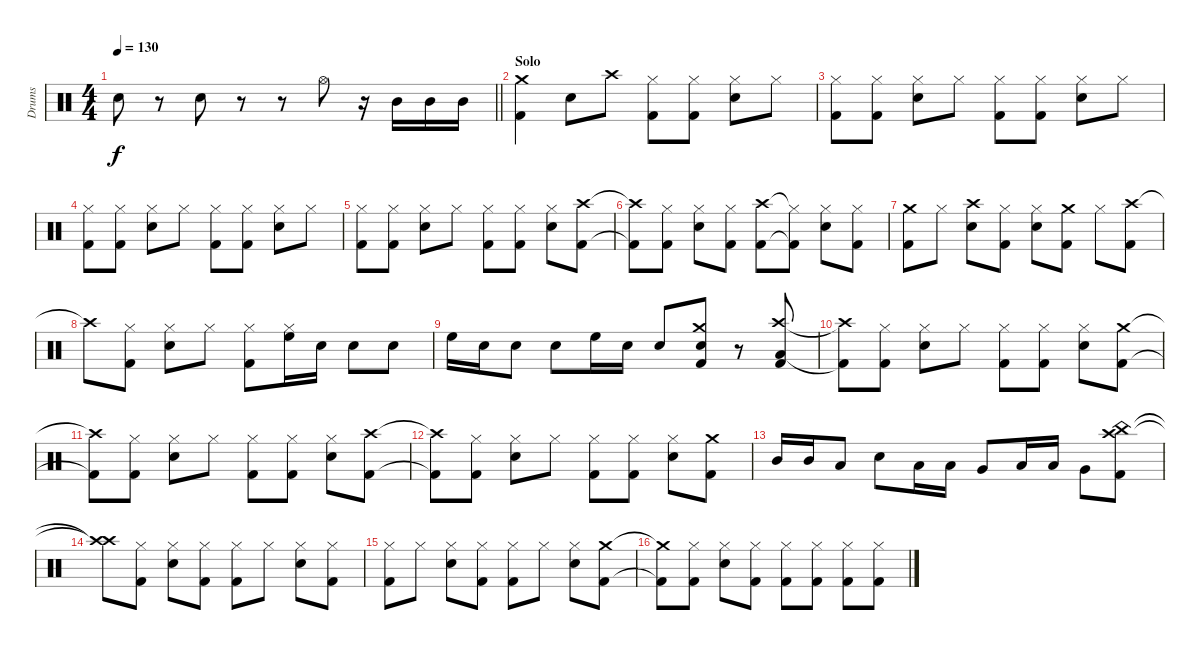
\track ("Drums" "Drums") {instrument percussion}
\staff {score}
\articulation defaults
\ts (4 4)
\tempo 130
\clef neutral
\barLineRight lightlight
\ks c "Electric Snare (hit)".8{dy f}
r.8 "Electric Snare (hit)".8 r.8 r.8 "Hi-Hat (open)".8 r.16 "Mid Tom (hit)".16 "Mid Tom (hit)".16 "Mid Tom (hit)".16 |
\section ("" "Solo")
("Crash medium (hit)" "Kick (hit) 2").4 "Electric Snare (hit)".8 "Crash high (hit)".8 ("Hi-Hat (closed)" "Kick (hit) 2").8 ("Hi-Hat (closed)" "Kick (hit) 2").8 ("Hi-Hat (closed)" "Electric Snare (hit)").8 "Hi-Hat (closed)".8 |
("Hi-Hat (closed)" "Kick (hit) 2").8 ("Hi-Hat (closed)" "Kick (hit) 2").8 ("Hi-Hat (closed)" "Electric Snare (hit)").8 "Hi-Hat (closed)".8 ("Hi-Hat (closed)" "Kick (hit) 2").8 ("Hi-Hat (closed)" "Kick (hit) 2").8 ("Hi-Hat (closed)" "Electric Snare (hit)").8 "Hi-Hat (closed)".8 |
("Hi-Hat (closed)" "Kick (hit) 2").8 ("Hi-Hat (closed)" "Kick (hit) 2").8 ("Hi-Hat (closed)" "Electric Snare (hit)").8 "Hi-Hat (closed)".8 ("Hi-Hat (closed)" "Kick (hit) 2").8 ("Hi-Hat (closed)" "Kick (hit) 2").8 ("Hi-Hat (closed)" "Electric Snare (hit)").8 "Hi-Hat (closed)".8 |
("Hi-Hat (closed)" "Kick (hit) 2").8 ("Hi-Hat (closed)" "Kick (hit) 2").8 ("Hi-Hat (closed)" "Electric Snare (hit)").8 "Hi-Hat (closed)".8 ("Hi-Hat (closed)" "Kick (hit) 2").8 ("Hi-Hat (closed)" "Kick (hit) 2").8 ("Hi-Hat (closed)" "Electric Snare (hit)").8 ("Crash high (hit)" "Kick (hit) 2").8 |
("Crash high (hit)"{t} "Kick (hit) 2"{t}).8 ("Hi-Hat (closed)" "Kick (hit) 2").8 ("Hi-Hat (closed)" "Electric Snare (hit)").8 ("Hi-Hat (closed)" "Kick (hit) 2").8 ("Crash high (hit)" "Kick (hit) 2").8 ("Hi-Hat (closed)"{t} "Kick (hit) 2"{t}).8 ("Hi-Hat (closed)" "Electric Snare (hit)").8 ("Hi-Hat (closed)" "Kick (hit) 2").8 |
("Crash medium (hit)" "Kick (hit) 2").8 "Hi-Hat (closed)".8 ("Crash high (hit)" "Electric Snare (hit)").8 ("Hi-Hat (closed)" "Kick (hit) 2").8 ("Hi-Hat (closed)" "Electric Snare (hit)").8 ("Crash medium (hit)" "Kick (hit) 2").8 "Hi-Hat (closed)".8 ("Crash high (hit)" "Kick (hit) 2").8 |
"Crash high (hit)"{t}.8 ("Hi-Hat (closed)" "Kick (hit) 2").8 ("Hi-Hat (closed)" "Electric Snare (hit)").8 "Hi-Hat (closed)".8 ("Hi-Hat (closed)" "Kick (hit) 2").8 ("Hi-Hat (closed)" "High Floor Tom (hit)").16 "Electric Snare (hit)".16 "Electric Snare (hit)".8 "Electric Snare (hit)".8 |
"High Floor Tom (hit)".16 "Electric Snare (hit)".16 "Electric Snare (hit)".8 "Electric Snare (hit)".8 "High Floor Tom (hit)".16 "Electric Snare (hit)".16 "Electric Snare (hit)".8 ("Crash medium (hit)" "Electric Snare (hit)" "Kick (hit) 2").8 r.8 ("Crash high (hit)" "Low Tom (hit)" "Kick (hit) 2").8 |
("Crash high (hit)"{t} "Kick (hit) 2"{t}).8 ("Hi-Hat (closed)" "Kick (hit) 2").8 ("Hi-Hat (closed)" "Electric Snare (hit)").8 "Hi-Hat (closed)".8 ("Hi-Hat (closed)" "Kick (hit) 2").8 ("Hi-Hat (closed)" "Kick (hit) 2").8 ("Hi-Hat (closed)" "Electric Snare (hit)").8 ("Crash medium (hit)" "Kick (hit) 2").8 |
("Crash high (hit)"{t} "Kick (hit) 2"{t}).8 ("Hi-Hat (closed)" "Kick (hit) 2").8 ("Hi-Hat (closed)" "Electric Snare (hit)").8 "Hi-Hat (closed)".8 ("Hi-Hat (closed)" "Kick (hit) 2").8 ("Hi-Hat (closed)" "Kick (hit) 2").8 ("Hi-Hat (closed)" "Electric Snare (hit)").8 ("Crash high (hit)" "Kick (hit) 2").8 |
("Crash high (hit)"{t} "Kick (hit) 2"{t}).8 ("Hi-Hat (closed)" "Kick (hit) 2").8 ("Hi-Hat (closed)" "Electric Snare (hit)").8 "Hi-Hat (closed)".8 ("Hi-Hat (closed)" "Kick (hit) 2").8 ("Hi-Hat (closed)" "Kick (hit) 2").8 ("Hi-Hat (closed)" "Electric Snare (hit)").8 ("Crash medium (hit)" "Kick (hit) 2").8 |
"Mid Tom (hit)".16 "Mid Tom (hit)".16 "Low Tom (hit)".8 "Electric Snare (hit)".8 "Low Tom (hit)".16 "Low Tom (hit)".16 "Very Low Tom (hit)".8 "Low Tom (hit)".16 "Low Tom (hit)".16 "Very Low Tom (hit)".8 ("China (hit)" "Crash high (hit)" "Kick (hit) 2").8 |
("Crash high (hit)"{t} "Crash high (hit)"{t}).8 ("Hi-Hat (closed)" "Kick (hit) 2").8 ("Hi-Hat (closed)" "Electric Snare (hit)").8 ("Hi-Hat (closed)" "Kick (hit) 2").8 ("Hi-Hat (closed)" "Kick (hit) 2").8 "Hi-Hat (closed)".8 ("Hi-Hat (closed)" "Electric Snare (hit)").8 ("Hi-Hat (closed)" "Kick (hit) 2").8 |
("Hi-Hat (closed)" "Kick (hit) 2").8 "Hi-Hat (closed)".8 ("Hi-Hat (closed)" "Electric Snare (hit)").8 ("Hi-Hat (closed)" "Kick (hit) 2").8 ("Hi-Hat (closed)" "Kick (hit) 2").8 "Hi-Hat (closed)".8 ("Hi-Hat (closed)" "Electric Snare (hit)").8 ("Crash medium (hit)" "Kick (hit) 2").8 |
("Crash medium (hit)"{t} "Kick (hit) 2"{t}).8 ("Hi-Hat (closed)" "Kick (hit) 2").8 ("Hi-Hat (closed)" "Electric Snare (hit)").8 ("Hi-Hat (closed)" "Kick (hit) 2").8 ("Hi-Hat (closed)" "Kick (hit) 2").8 ("Hi-Hat (closed)" "Kick (hit) 2").8 ("Hi-Hat (closed)" "Kick (hit) 2").8 ("Hi-Hat (closed)" "Kick (hit) 2").8
